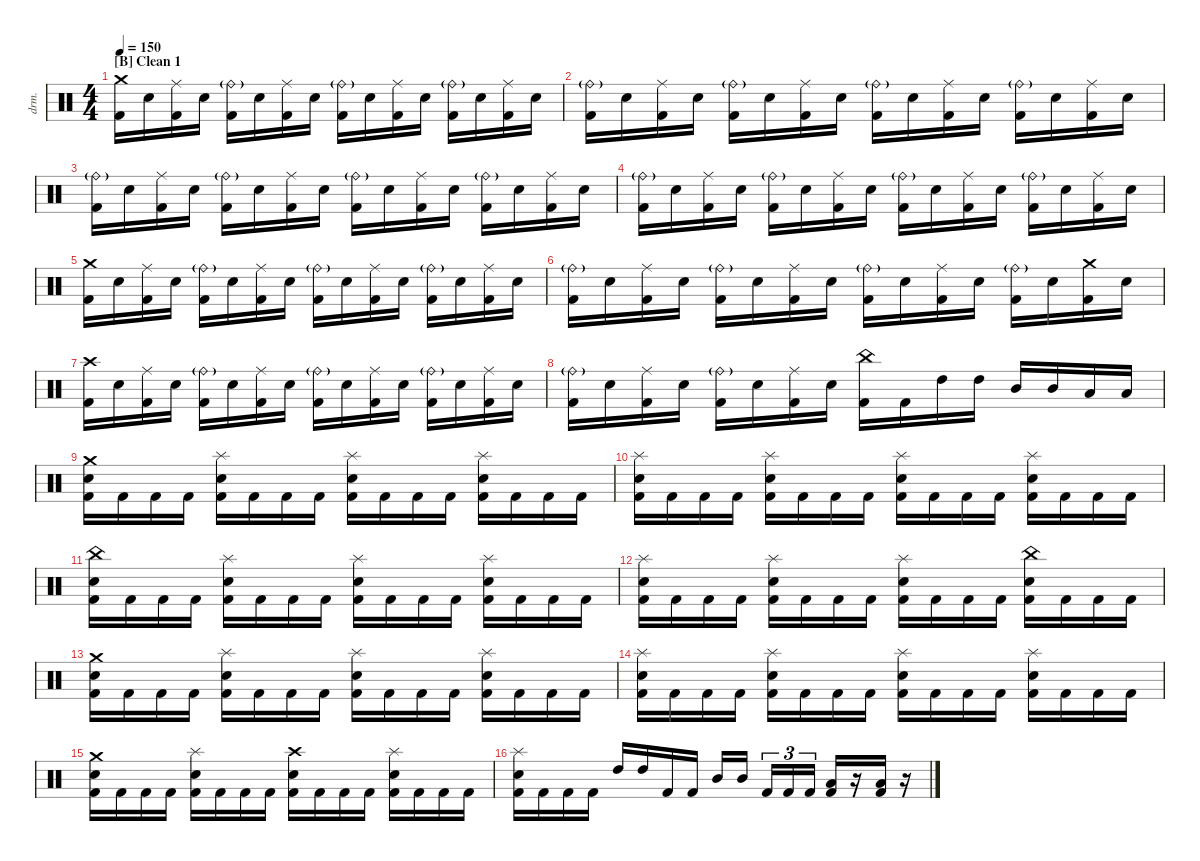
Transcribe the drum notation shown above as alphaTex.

\hideDynamics
\bracketExtendMode nobrackets
\track ("Drums" "drm.") {instrument percussion}
\staff {score}
\articulation defaults
\ts (4 4)
\section ("B" "Clean 1")
\tempo 150
\clef neutral
\ks c
("Kick (hit) 2" "Crash medium (hit)").16{dy mf beam Down} "Snare (hit) 2".16{beam Down} ("Kick (hit) 2" "Ride (middle)").16{beam Down} "Snare (hit) 2".16{beam Down} ("Kick (hit) 2" "Ride (bell)"{g}).16{beam Down} "Snare (hit) 2".16{beam Down} ("Kick (hit) 2" "Ride (middle)").16{beam Down} "Snare (hit) 2".16{beam Down} ("Kick (hit) 2" "Ride (bell)"{g}).16{beam Down} "Snare (hit) 2".16{beam Down} ("Kick (hit) 2" "Ride (middle)").16{beam Down} "Snare (hit) 2".16{beam Down} ("Kick (hit) 2" "Ride (bell)"{g}).16{beam Down} "Snare (hit) 2".16{beam Down} ("Kick (hit) 2" "Ride (middle)").16{beam Down} "Snare (hit) 2".16{beam Down} |
("Kick (hit) 2" "Ride (bell)"{g}).16{beam Down} "Snare (hit) 2".16{beam Down} ("Kick (hit) 2" "Ride (middle)").16{beam Down} "Snare (hit) 2".16{beam Down} ("Kick (hit) 2" "Ride (bell)"{g}).16{beam Down} "Snare (hit) 2".16{beam Down} ("Kick (hit) 2" "Ride (middle)").16{beam Down} "Snare (hit) 2".16{beam Down} ("Kick (hit) 2" "Ride (bell)"{g}).16{beam Down} "Snare (hit) 2".16{beam Down} ("Kick (hit) 2" "Ride (middle)").16{beam Down} "Snare (hit) 2".16{beam Down} ("Kick (hit) 2" "Ride (bell)"{g}).16{beam Down} "Snare (hit) 2".16{beam Down} ("Kick (hit) 2" "Ride (middle)").16{beam Down} "Snare (hit) 2".16{beam Down} |
("Kick (hit) 2" "Ride (bell)"{g}).16{beam Down} "Snare (hit) 2".16{beam Down} ("Kick (hit) 2" "Ride (middle)").16{beam Down} "Snare (hit) 2".16{beam Down} ("Kick (hit) 2" "Ride (bell)"{g}).16{beam Down} "Snare (hit) 2".16{beam Down} ("Kick (hit) 2" "Ride (middle)").16{beam Down} "Snare (hit) 2".16{beam Down} ("Kick (hit) 2" "Ride (bell)"{g}).16{beam Down} "Snare (hit) 2".16{beam Down} ("Kick (hit) 2" "Ride (middle)").16{beam Down} "Snare (hit) 2".16{beam Down} ("Kick (hit) 2" "Ride (bell)"{g}).16{beam Down} "Snare (hit) 2".16{beam Down} ("Kick (hit) 2" "Ride (middle)").16{beam Down} "Snare (hit) 2".16{beam Down} |
("Kick (hit) 2" "Ride (bell)"{g}).16{beam Down} "Snare (hit) 2".16{beam Down} ("Kick (hit) 2" "Ride (middle)").16{beam Down} "Snare (hit) 2".16{beam Down} ("Kick (hit) 2" "Ride (bell)"{g}).16{beam Down} "Snare (hit) 2".16{beam Down} ("Kick (hit) 2" "Ride (middle)").16{beam Down} "Snare (hit) 2".16{beam Down} ("Kick (hit) 2" "Ride (bell)"{g}).16{beam Down} "Snare (hit) 2".16{beam Down} ("Kick (hit) 2" "Ride (middle)").16{beam Down} "Snare (hit) 2".16{beam Down} ("Kick (hit) 2" "Ride (bell)"{g}).16{beam Down} "Snare (hit) 2".16{beam Down} ("Kick (hit) 2" "Ride (middle)").16{beam Down} "Snare (hit) 2".16{beam Down} |
("Kick (hit) 2" "Crash medium (hit)").16{beam Down} "Snare (hit) 2".16{beam Down} ("Kick (hit) 2" "Ride (middle)").16{beam Down} "Snare (hit) 2".16{beam Down} ("Kick (hit) 2" "Ride (bell)"{g}).16{beam Down} "Snare (hit) 2".16{beam Down} ("Kick (hit) 2" "Ride (middle)").16{beam Down} "Snare (hit) 2".16{beam Down} ("Kick (hit) 2" "Ride (bell)"{g}).16{beam Down} "Snare (hit) 2".16{beam Down} ("Kick (hit) 2" "Ride (middle)").16{beam Down} "Snare (hit) 2".16{beam Down} ("Kick (hit) 2" "Ride (bell)"{g}).16{beam Down} "Snare (hit) 2".16{beam Down} ("Kick (hit) 2" "Ride (middle)").16{beam Down} "Snare (hit) 2".16{beam Down} |
("Kick (hit) 2" "Ride (bell)"{g}).16{beam Down} "Snare (hit) 2".16{beam Down} ("Kick (hit) 2" "Ride (middle)").16{beam Down} "Snare (hit) 2".16{beam Down} ("Kick (hit) 2" "Ride (bell)"{g}).16{beam Down} "Snare (hit) 2".16{beam Down} ("Kick (hit) 2" "Ride (middle)").16{beam Down} "Snare (hit) 2".16{beam Down} ("Kick (hit) 2" "Ride (bell)"{g}).16{beam Down} "Snare (hit) 2".16{beam Down} ("Kick (hit) 2" "Ride (middle)").16{beam Down} "Snare (hit) 2".16{beam Down} ("Kick (hit) 2" "Ride (bell)"{g}).16{beam Down} "Snare (hit) 2".16{beam Down} ("Kick (hit) 2" "Crash medium (hit)").16{beam Down} "Snare (hit) 2".16{beam Down} |
("Kick (hit) 2" "Crash high (hit)").16{beam Down} "Snare (hit) 2".16{beam Down} ("Kick (hit) 2" "Ride (middle)").16{beam Down} "Snare (hit) 2".16{beam Down} ("Kick (hit) 2" "Ride (bell)"{g}).16{beam Down} "Snare (hit) 2".16{beam Down} ("Kick (hit) 2" "Ride (middle)").16{beam Down} "Snare (hit) 2".16{beam Down} ("Kick (hit) 2" "Ride (bell)"{g}).16{beam Down} "Snare (hit) 2".16{beam Down} ("Kick (hit) 2" "Ride (middle)").16{beam Down} "Snare (hit) 2".16{beam Down} ("Kick (hit) 2" "Ride (bell)"{g}).16{beam Down} "Snare (hit) 2".16{beam Down} ("Kick (hit) 2" "Ride (middle)").16{beam Down} "Snare (hit) 2".16{beam Down} |
("Kick (hit) 2" "Ride (bell)"{g}).16{beam Down} "Snare (hit) 2".16{beam Down} ("Kick (hit) 2" "Ride (middle)").16{beam Down} "Snare (hit) 2".16{beam Down} ("Kick (hit) 2" "Ride (bell)"{g}).16{beam Down} "Snare (hit) 2".16{beam Down} ("Kick (hit) 2" "Ride (middle)").16{beam Down} "Snare (hit) 2".16{beam Down} ("Kick (hit) 2" "China (hit)").16{beam Down} "Kick (hit) 2".16{beam Down} "High Tom (hit)".16{beam Down} "High Tom (hit)".16{beam Down} "Mid Tom (hit)".16{beam Up} "Mid Tom (hit)".16{beam Up} "Low Tom (hit)".16{beam Up} "Low Tom (hit)".16{beam Up} |
("Kick (hit) 2" "Snare (hit) 2" "Crash medium (hit)").16{beam Down} "Kick (hit) 2".16{beam Down} "Kick (hit) 2".16{beam Down} "Kick (hit) 2".16{beam Down} ("Kick (hit) 2" "Snare (hit) 2" "Splash (hit)").16{beam Down} "Kick (hit) 2".16{beam Down} "Kick (hit) 2".16{beam Down} "Kick (hit) 2".16{beam Down} ("Kick (hit) 2" "Snare (hit) 2" "Splash (hit)").16{beam Down} "Kick (hit) 2".16{beam Down} "Kick (hit) 2".16{beam Down} "Kick (hit) 2".16{beam Down} ("Kick (hit) 2" "Snare (hit) 2" "Splash (hit)").16{beam Down} "Kick (hit) 2".16{beam Down} "Kick (hit) 2".16{beam Down} "Kick (hit) 2".16{beam Down} |
("Kick (hit) 2" "Snare (hit) 2" "Splash (hit)").16{beam Down} "Kick (hit) 2".16{beam Down} "Kick (hit) 2".16{beam Down} "Kick (hit) 2".16{beam Down} ("Kick (hit) 2" "Snare (hit) 2" "Splash (hit)").16{beam Down} "Kick (hit) 2".16{beam Down} "Kick (hit) 2".16{beam Down} "Kick (hit) 2".16{beam Down} ("Kick (hit) 2" "Snare (hit) 2" "Splash (hit)").16{beam Down} "Kick (hit) 2".16{beam Down} "Kick (hit) 2".16{beam Down} "Kick (hit) 2".16{beam Down} ("Kick (hit) 2" "Snare (hit) 2" "Splash (hit)").16{beam Down} "Kick (hit) 2".16{beam Down} "Kick (hit) 2".16{beam Down} "Kick (hit) 2".16{beam Down} |
("Kick (hit) 2" "Snare (hit) 2" "China (hit)").16{beam Down} "Kick (hit) 2".16{beam Down} "Kick (hit) 2".16{beam Down} "Kick (hit) 2".16{beam Down} ("Kick (hit) 2" "Snare (hit) 2" "Splash (hit)").16{beam Down} "Kick (hit) 2".16{beam Down} "Kick (hit) 2".16{beam Down} "Kick (hit) 2".16{beam Down} ("Kick (hit) 2" "Snare (hit) 2" "Splash (hit)").16{beam Down} "Kick (hit) 2".16{beam Down} "Kick (hit) 2".16{beam Down} "Kick (hit) 2".16{beam Down} ("Kick (hit) 2" "Snare (hit) 2" "Splash (hit)").16{beam Down} "Kick (hit) 2".16{beam Down} "Kick (hit) 2".16{beam Down} "Kick (hit) 2".16{beam Down} |
("Kick (hit) 2" "Snare (hit) 2" "Splash (hit)").16{beam Down} "Kick (hit) 2".16{beam Down} "Kick (hit) 2".16{beam Down} "Kick (hit) 2".16{beam Down} ("Kick (hit) 2" "Snare (hit) 2" "Splash (hit)").16{beam Down} "Kick (hit) 2".16{beam Down} "Kick (hit) 2".16{beam Down} "Kick (hit) 2".16{beam Down} ("Kick (hit) 2" "Snare (hit) 2" "Splash (hit)").16{beam Down} "Kick (hit) 2".16{beam Down} "Kick (hit) 2".16{beam Down} "Kick (hit) 2".16{beam Down} ("Kick (hit) 2" "Snare (hit) 2" "China (hit)").16{beam Down} "Kick (hit) 2".16{beam Down} "Kick (hit) 2".16{beam Down} "Kick (hit) 2".16{beam Down} |
("Kick (hit) 2" "Snare (hit) 2" "Crash medium (hit)").16{beam Down} "Kick (hit) 2".16{beam Down} "Kick (hit) 2".16{beam Down} "Kick (hit) 2".16{beam Down} ("Kick (hit) 2" "Snare (hit) 2" "Splash (hit)").16{beam Down} "Kick (hit) 2".16{beam Down} "Kick (hit) 2".16{beam Down} "Kick (hit) 2".16{beam Down} ("Kick (hit) 2" "Snare (hit) 2" "Splash (hit)").16{beam Down} "Kick (hit) 2".16{beam Down} "Kick (hit) 2".16{beam Down} "Kick (hit) 2".16{beam Down} ("Kick (hit) 2" "Snare (hit) 2" "Splash (hit)").16{beam Down} "Kick (hit) 2".16{beam Down} "Kick (hit) 2".16{beam Down} "Kick (hit) 2".16{beam Down} |
("Kick (hit) 2" "Snare (hit) 2" "Splash (hit)").16{beam Down} "Kick (hit) 2".16{beam Down} "Kick (hit) 2".16{beam Down} "Kick (hit) 2".16{beam Down} ("Kick (hit) 2" "Snare (hit) 2" "Splash (hit)").16{beam Down} "Kick (hit) 2".16{beam Down} "Kick (hit) 2".16{beam Down} "Kick (hit) 2".16{beam Down} ("Kick (hit) 2" "Snare (hit) 2" "Splash (hit)").16{beam Down} "Kick (hit) 2".16{beam Down} "Kick (hit) 2".16{beam Down} "Kick (hit) 2".16{beam Down} ("Kick (hit) 2" "Snare (hit) 2" "Splash (hit)").16{beam Down} "Kick (hit) 2".16{beam Down} "Kick (hit) 2".16{beam Down} "Kick (hit) 2".16{beam Down} |
("Kick (hit) 2" "Snare (hit) 2" "Crash medium (hit)").16{beam Down} "Kick (hit) 2".16{beam Down} "Kick (hit) 2".16{beam Down} "Kick (hit) 2".16{beam Down} ("Kick (hit) 2" "Snare (hit) 2" "Splash (hit)").16{beam Down} "Kick (hit) 2".16{beam Down} "Kick (hit) 2".16{beam Down} "Kick (hit) 2".16{beam Down} ("Kick (hit) 2" "Snare (hit) 2" "Crash high (hit)").16{beam Down} "Kick (hit) 2".16{beam Down} "Kick (hit) 2".16{beam Down} "Kick (hit) 2".16{beam Down} ("Kick (hit) 2" "Snare (hit) 2" "Splash (hit)").16{beam Down} "Kick (hit) 2".16{beam Down} "Kick (hit) 2".16{beam Down} "Kick (hit) 2".16{beam Down} |
("Kick (hit) 2" "Snare (hit) 2" "Splash (hit)").16{beam Down} "Kick (hit) 2".16{beam Down} "Kick (hit) 2".16{beam Down} "Kick (hit) 2".16{beam Down} "High Tom (hit)".16{beam Up} "High Tom (hit)".16{beam Up} "Kick (hit) 2".16{beam Up} "Kick (hit) 2".16{beam Up} "Mid Tom (hit)".16{beam Up} "Mid Tom (hit)".16{beam Up} "Kick (hit) 2".16{tu (3 2) beam Up} "Kick (hit) 2".16{tu (3 2) beam Up} "Kick (hit) 2".16{tu (3 2) beam Up} ("Kick (hit) 2" "Low Tom (hit)").16{beam Up} r.16{beam Up} ("Kick (hit) 2" "Low Tom (hit)").16{beam Up} r.16{beam Down}
